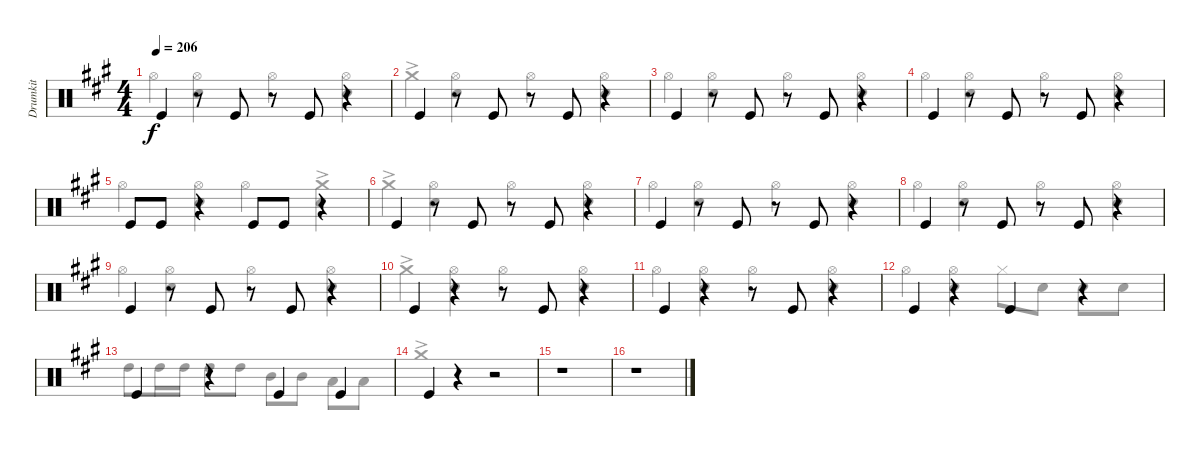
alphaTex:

\track ("Drumkit" "Drumkit") {instrument percussion}
\staff {score}
\articulation defaults
\voice
\ts (4 4)
\tempo 206
\clef neutral
\ks a "Kick (hit)".4{dy f}
r.8 "Kick (hit)".8 r.8 "Kick (hit)".8 r.4 |
"Kick (hit)".4 r.8 "Kick (hit)".8 r.8 "Kick (hit)".8 r.4 |
"Kick (hit)".4 r.8 "Kick (hit)".8 r.8 "Kick (hit)".8 r.4 |
"Kick (hit)".4 r.8 "Kick (hit)".8 r.8 "Kick (hit)".8 r.4 |
"Kick (hit)".8 "Kick (hit)".8 r.4 "Kick (hit)".8 "Kick (hit)".8 r.4 |
"Kick (hit)".4 r.8 "Kick (hit)".8 r.8 "Kick (hit)".8 r.4 |
"Kick (hit)".4 r.8 "Kick (hit)".8 r.8 "Kick (hit)".8 r.4 |
"Kick (hit)".4 r.8 "Kick (hit)".8 r.8 "Kick (hit)".8 r.4 |
"Kick (hit)".4 r.8 "Kick (hit)".8 r.8 "Kick (hit)".8 r.4 |
"Kick (hit)".4 r.4 r.8 "Kick (hit)".8 r.4 |
"Kick (hit)".4 r.4 r.8 "Kick (hit)".8 r.4 |
"Kick (hit)".4 r.4 "Kick (hit)".4 r.4 |
"Kick (hit)".4 r.4 "Kick (hit)".4 "Kick (hit)".4 |
"Kick (hit)".4 r.4 r.2 |
r.1 |
r.1
\voice
\clef neutral
\ottava regular
\simile none
\ks a "Hi-Hat (open)".4{dy f}
("Hi-Hat (open)" "Snare (hit) 2").4 "Hi-Hat (open)".4 ("Hi-Hat (open)" "Snare (hit) 2").4 |
"Crash medium (hit)"{ac}.4 ("Hi-Hat (open)" "Snare (hit) 2").4 "Hi-Hat (open)".4 ("Hi-Hat (open)" "Snare (hit) 2").4 |
"Hi-Hat (open)".4 ("Hi-Hat (open)" "Snare (hit) 2").4 "Hi-Hat (open)".4 ("Hi-Hat (open)" "Snare (hit) 2").4 |
"Hi-Hat (open)".4 ("Hi-Hat (open)" "Snare (hit) 2").4 "Hi-Hat (open)".4 ("Hi-Hat (open)" "Snare (hit) 2").4 |
"Hi-Hat (open)".4 ("Snare (hit) 2" "Hi-Hat (open)").4 "Hi-Hat (open)".4 ("Crash medium (hit)"{ac} "Snare (hit) 2").4 |
"Crash medium (hit)"{ac}.4 ("Hi-Hat (open)" "Snare (hit) 2").4 "Hi-Hat (open)".4 ("Hi-Hat (open)" "Snare (hit) 2").4 |
"Hi-Hat (open)".4 ("Hi-Hat (open)" "Snare (hit) 2").4 "Hi-Hat (open)".4 ("Hi-Hat (open)" "Snare (hit) 2").4 |
"Hi-Hat (open)".4 ("Hi-Hat (open)" "Snare (hit) 2").4 "Hi-Hat (open)".4 ("Hi-Hat (open)" "Snare (hit) 2").4 |
"Hi-Hat (open)".4 ("Hi-Hat (open)" "Snare (hit) 2").4 "Hi-Hat (open)".4 ("Hi-Hat (open)" "Snare (hit) 2").4 |
"Crash medium (hit)"{ac}.4 ("Hi-Hat (open)" "Snare (hit) 2").4 "Hi-Hat (open)".4 ("Hi-Hat (open)" "Snare (hit) 2").4 |
"Hi-Hat (open)".4 ("Hi-Hat (open)" "Snare (hit) 2").4 "Hi-Hat (open)".4 ("Hi-Hat (open)" "Snare (hit) 2").4 |
"Hi-Hat (open)".4 ("Hi-Hat (open)" "Snare (hit) 2").4 "Hi-Hat (closed)".8 "Snare (hit) 2".8 "Snare (hit) 2".8 "Snare (hit) 2".8 |
"High Tom (hit)".8 "High Tom (hit)".16 "High Tom (hit)".16 "High Tom (hit)".8 "High Tom (hit)".8 "Mid Tom (hit)".8 "Mid Tom (hit)".8 "Low Tom (hit)".8 "Low Tom (hit)".8 |
"Crash medium (hit)"{ac}.1 |
r.1 |
r.1
